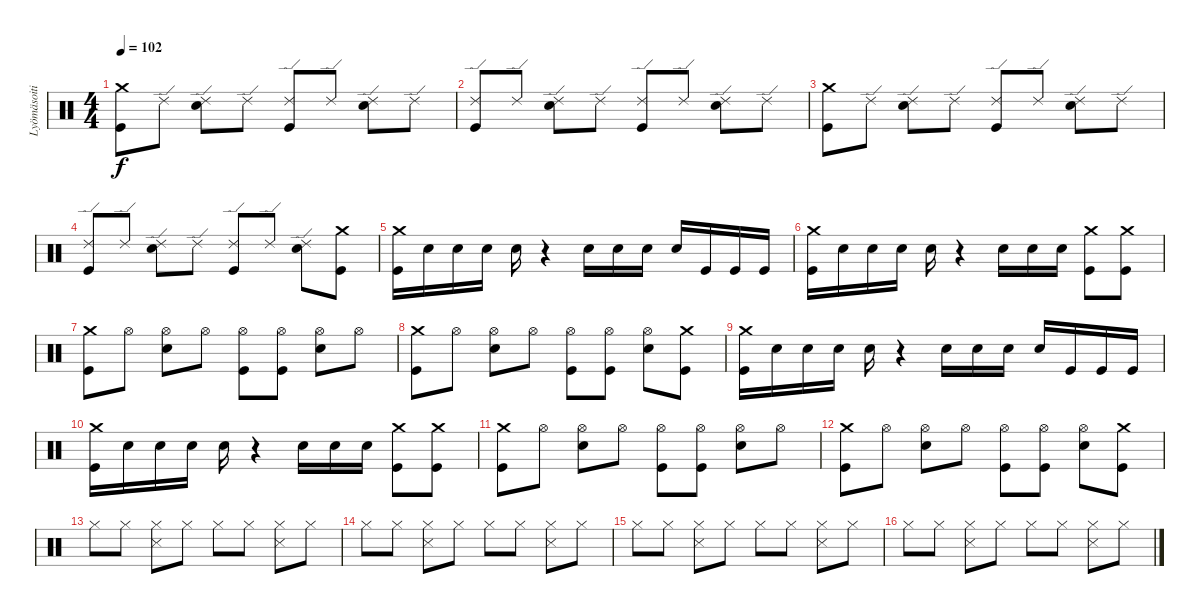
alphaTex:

\track ("Lyömäsoitin" "Lyömäsoiti") {instrument percussion}
\staff {score}
\articulation defaults
\ts (4 4)
\tempo 102
\clef neutral
\ks c
("Crash medium (hit)" "Kick (hit)").8{dy f} "Ride (edge) 2".8 ("Ride (edge) 2" "Snare (hit) 2").8 "Ride (edge) 2".8 ("Ride (edge) 2" "Kick (hit)").8 "Ride (edge) 2".8 ("Ride (edge) 2" "Snare (hit) 2").8 "Ride (edge) 2".8 |
("Ride (edge) 2" "Kick (hit)").8 "Ride (edge) 2".8 ("Ride (edge) 2" "Snare (hit) 2").8 "Ride (edge) 2".8 ("Ride (edge) 2" "Kick (hit)").8 "Ride (edge) 2".8 ("Ride (edge) 2" "Snare (hit) 2").8 "Ride (edge) 2".8 |
("Crash medium (hit)" "Kick (hit)").8 "Ride (edge) 2".8 ("Ride (edge) 2" "Snare (hit) 2").8 "Ride (edge) 2".8 ("Ride (edge) 2" "Kick (hit)").8 "Ride (edge) 2".8 ("Ride (edge) 2" "Snare (hit) 2").8 "Ride (edge) 2".8 |
("Ride (edge) 2" "Kick (hit)").8 "Ride (edge) 2".8 ("Ride (edge) 2" "Snare (hit) 2").8 "Ride (edge) 2".8 ("Ride (edge) 2" "Kick (hit)").8 "Ride (edge) 2".8 ("Ride (edge) 2" "Snare (hit) 2").8 ("Crash medium (hit)" "Kick (hit)").8 |
("Crash medium (hit)" "Kick (hit)").16 "Snare (hit) 2".16 "Snare (hit) 2".16 "Snare (hit) 2".16 "Snare (hit) 2".16 r.4 "Snare (hit) 2".16 "Snare (hit) 2".16 "Snare (hit) 2".16 "Snare (hit) 2".16 "Kick (hit)".16 "Kick (hit)".16 "Kick (hit)".16 |
("Crash medium (hit)" "Kick (hit)").16 "Snare (hit) 2".16 "Snare (hit) 2".16 "Snare (hit) 2".16 "Snare (hit) 2".16 r.4 "Snare (hit) 2".16 "Snare (hit) 2".16 "Snare (hit) 2".16 ("Crash medium (hit)" "Kick (hit)").8 ("Crash medium (hit)" "Kick (hit)").8 |
("Crash medium (hit)" "Kick (hit)").8 "Hi-Hat (open)".8 ("Hi-Hat (open)" "Snare (hit) 2").8 "Hi-Hat (open)".8 ("Hi-Hat (open)" "Kick (hit)").8 ("Hi-Hat (open)" "Kick (hit)").8 ("Hi-Hat (open)" "Snare (hit) 2").8 "Hi-Hat (open)".8 |
("Crash medium (hit)" "Kick (hit)").8 "Hi-Hat (open)".8 ("Hi-Hat (open)" "Snare (hit) 2").8 "Hi-Hat (open)".8 ("Hi-Hat (open)" "Kick (hit)").8 ("Hi-Hat (open)" "Kick (hit)").8 ("Hi-Hat (open)" "Snare (hit) 2").8 ("Crash medium (hit)" "Kick (hit)").8 |
("Crash medium (hit)" "Kick (hit)").16 "Snare (hit) 2".16 "Snare (hit) 2".16 "Snare (hit) 2".16 "Snare (hit) 2".16 r.4 "Snare (hit) 2".16 "Snare (hit) 2".16 "Snare (hit) 2".16 "Snare (hit) 2".16 "Kick (hit)".16 "Kick (hit)".16 "Kick (hit)".16 |
("Crash medium (hit)" "Kick (hit)").16 "Snare (hit) 2".16 "Snare (hit) 2".16 "Snare (hit) 2".16 "Snare (hit) 2".16 r.4 "Snare (hit) 2".16 "Snare (hit) 2".16 "Snare (hit) 2".16 ("Crash medium (hit)" "Kick (hit)").8 ("Crash medium (hit)" "Kick (hit)").8 |
("Crash medium (hit)" "Kick (hit)").8 "Hi-Hat (open)".8 ("Hi-Hat (open)" "Snare (hit) 2").8 "Hi-Hat (open)".8 ("Hi-Hat (open)" "Kick (hit)").8 ("Hi-Hat (open)" "Kick (hit)").8 ("Hi-Hat (open)" "Snare (hit) 2").8 "Hi-Hat (open)".8 |
("Crash medium (hit)" "Kick (hit)").8 "Hi-Hat (open)".8 ("Hi-Hat (open)" "Snare (hit) 2").8 "Hi-Hat (open)".8 ("Hi-Hat (open)" "Kick (hit)").8 ("Hi-Hat (open)" "Kick (hit)").8 ("Hi-Hat (open)" "Snare (hit) 2").8 ("Crash medium (hit)" "Kick (hit)").8 |
"Hi-Hat (closed)".8 "Hi-Hat (closed)".8 ("Hi-Hat (closed)" "Snare (side stick) 3").8 "Hi-Hat (closed)".8 "Hi-Hat (closed)".8 "Hi-Hat (closed)".8 ("Hi-Hat (closed)" "Snare (side stick) 3").8 "Hi-Hat (closed)".8 |
"Hi-Hat (closed)".8 "Hi-Hat (closed)".8 ("Hi-Hat (closed)" "Snare (side stick) 3").8 "Hi-Hat (closed)".8 "Hi-Hat (closed)".8 "Hi-Hat (closed)".8 ("Hi-Hat (closed)" "Snare (side stick) 3").8 "Hi-Hat (closed)".8 |
"Hi-Hat (closed)".8 "Hi-Hat (closed)".8 ("Hi-Hat (closed)" "Snare (side stick) 3").8 "Hi-Hat (closed)".8 "Hi-Hat (closed)".8 "Hi-Hat (closed)".8 ("Hi-Hat (closed)" "Snare (side stick) 3").8 "Hi-Hat (closed)".8 |
"Hi-Hat (closed)".8 "Hi-Hat (closed)".8 ("Hi-Hat (closed)" "Snare (side stick) 3").8 "Hi-Hat (closed)".8 "Hi-Hat (closed)".8 "Hi-Hat (closed)".8 ("Hi-Hat (closed)" "Snare (side stick) 3").8 "Hi-Hat (closed)".8
